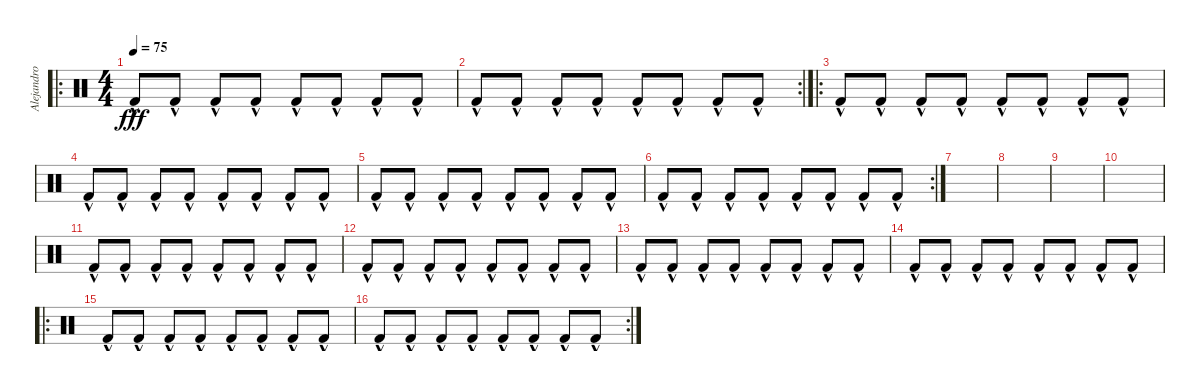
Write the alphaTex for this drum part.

\track ("Alejandro Manzano" "Alejandro ") {instrument percussion}
\staff {score}
\articulation defaults
\ro
\ts (4 4)
\tempo 75
\clef neutral
\ks c "Kick (hit) 2"{hac}.8{dy fff} "Kick (hit) 2"{hac}.8 "Kick (hit) 2"{hac}.8 "Kick (hit) 2"{hac}.8 "Kick (hit) 2"{hac}.8 "Kick (hit) 2"{hac}.8 "Kick (hit) 2"{hac}.8 "Kick (hit) 2"{hac}.8
|
\rc 2 "Kick (hit) 2"{hac}.8 "Kick (hit) 2"{hac}.8 "Kick (hit) 2"{hac}.8 "Kick (hit) 2"{hac}.8 "Kick (hit) 2"{hac}.8 "Kick (hit) 2"{hac}.8 "Kick (hit) 2"{hac}.8 "Kick (hit) 2"{hac}.8
|
\ro "Kick (hit) 2"{hac}.8 "Kick (hit) 2"{hac}.8 "Kick (hit) 2"{hac}.8 "Kick (hit) 2"{hac}.8 "Kick (hit) 2"{hac}.8 "Kick (hit) 2"{hac}.8 "Kick (hit) 2"{hac}.8 "Kick (hit) 2"{hac}.8
|
"Kick (hit) 2"{hac}.8 "Kick (hit) 2"{hac}.8 "Kick (hit) 2"{hac}.8 "Kick (hit) 2"{hac}.8 "Kick (hit) 2"{hac}.8 "Kick (hit) 2"{hac}.8 "Kick (hit) 2"{hac}.8 "Kick (hit) 2"{hac}.8 |
"Kick (hit) 2"{hac}.8 "Kick (hit) 2"{hac}.8 "Kick (hit) 2"{hac}.8 "Kick (hit) 2"{hac}.8 "Kick (hit) 2"{hac}.8 "Kick (hit) 2"{hac}.8 "Kick (hit) 2"{hac}.8 "Kick (hit) 2"{hac}.8 |
\rc 2 "Kick (hit) 2"{hac}.8 "Kick (hit) 2"{hac}.8 "Kick (hit) 2"{hac}.8 "Kick (hit) 2"{hac}.8 "Kick (hit) 2"{hac}.8 "Kick (hit) 2"{hac}.8 "Kick (hit) 2"{hac}.8 "Kick (hit) 2"{hac}.8
|
|
|
|
|
"Kick (hit) 2"{hac}.8 "Kick (hit) 2"{hac}.8 "Kick (hit) 2"{hac}.8 "Kick (hit) 2"{hac}.8 "Kick (hit) 2"{hac}.8 "Kick (hit) 2"{hac}.8 "Kick (hit) 2"{hac}.8 "Kick (hit) 2"{hac}.8 |
"Kick (hit) 2"{hac}.8 "Kick (hit) 2"{hac}.8 "Kick (hit) 2"{hac}.8 "Kick (hit) 2"{hac}.8 "Kick (hit) 2"{hac}.8 "Kick (hit) 2"{hac}.8 "Kick (hit) 2"{hac}.8 "Kick (hit) 2"{hac}.8 |
"Kick (hit) 2"{hac}.8 "Kick (hit) 2"{hac}.8 "Kick (hit) 2"{hac}.8 "Kick (hit) 2"{hac}.8 "Kick (hit) 2"{hac}.8 "Kick (hit) 2"{hac}.8 "Kick (hit) 2"{hac}.8 "Kick (hit) 2"{hac}.8 |
"Kick (hit) 2"{hac}.8 "Kick (hit) 2"{hac}.8 "Kick (hit) 2"{hac}.8 "Kick (hit) 2"{hac}.8 "Kick (hit) 2"{hac}.8 "Kick (hit) 2"{hac}.8 "Kick (hit) 2"{hac}.8 "Kick (hit) 2"{hac}.8 |
\ro "Kick (hit) 2"{hac}.8 "Kick (hit) 2"{hac}.8 "Kick (hit) 2"{hac}.8 "Kick (hit) 2"{hac}.8 "Kick (hit) 2"{hac}.8 "Kick (hit) 2"{hac}.8 "Kick (hit) 2"{hac}.8 "Kick (hit) 2"{hac}.8
|
\rc 2 "Kick (hit) 2"{hac}.8 "Kick (hit) 2"{hac}.8 "Kick (hit) 2"{hac}.8 "Kick (hit) 2"{hac}.8 "Kick (hit) 2"{hac}.8 "Kick (hit) 2"{hac}.8 "Kick (hit) 2"{hac}.8 "Kick (hit) 2"{hac}.8
